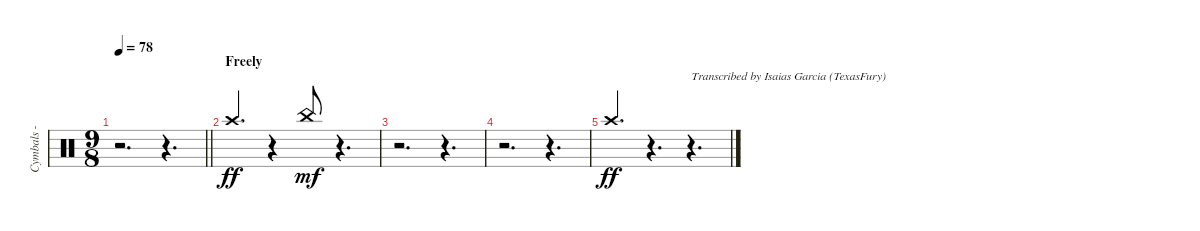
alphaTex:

\track ("Cymbals - crash" "Cymbals - ") {instrument percussion}
\staff {score}
\articulation defaults
\ts (9 8)
\tempo 78
\clef neutral
\barLineRight lightlight
\ks c
r.2{d dy ff} r.4{d} |
\section ("" "Freely")
"Crash high (hit)".4{d beam Up} r.4 "China (hit)".8{dy mf balance 4 beam Up} r.4{d} |
r.2{d} r.4{d} |
r.2{d} r.4{d balance 8} |
"Crash high (hit)".4{d dy ff beam Up} r.4{d} r.4{d txt "Transcribed by Isaias Garcia (TexasFury)"}
